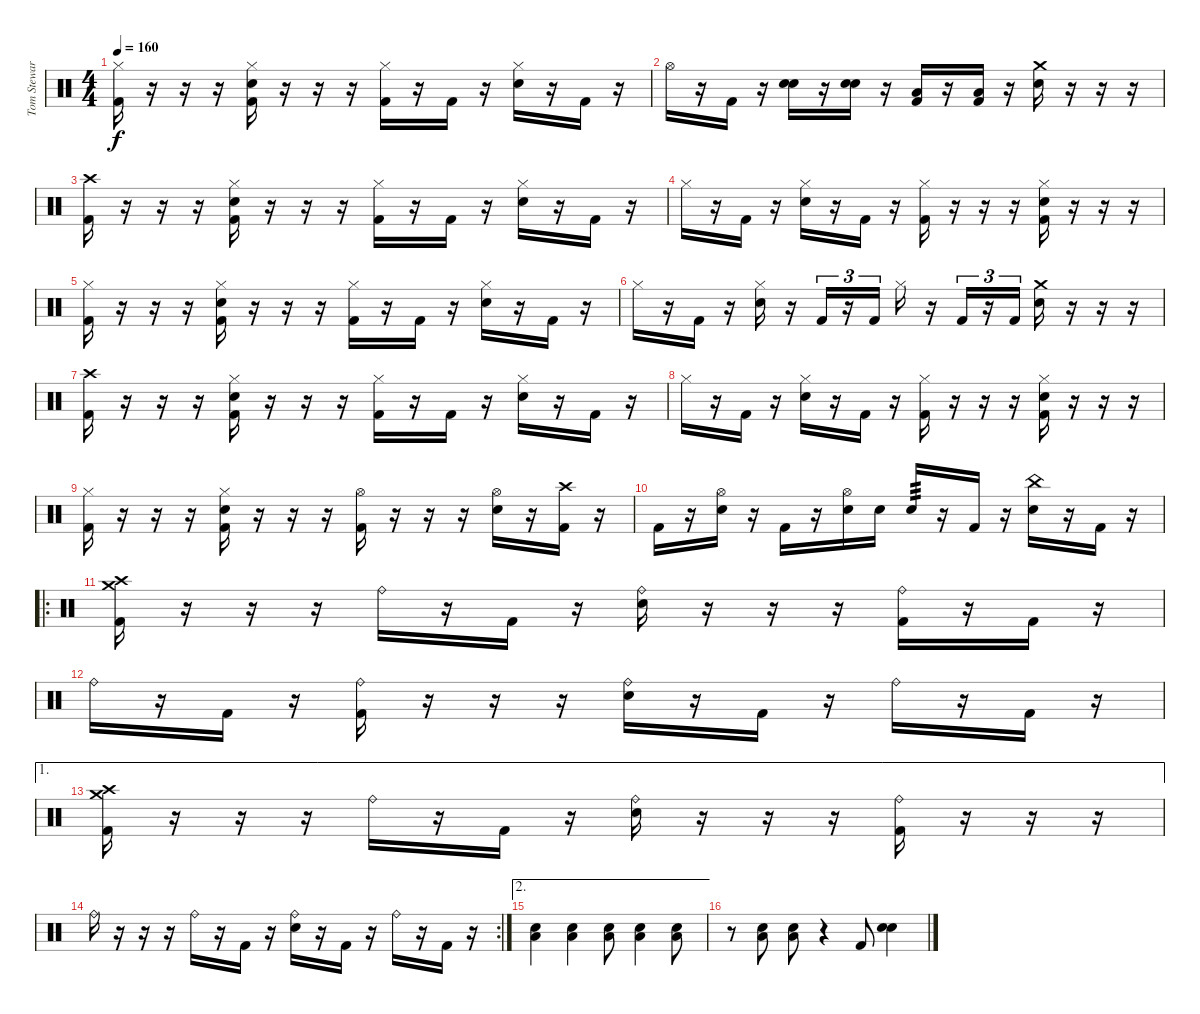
\track ("Tom Steward" "Tom Stewar") {instrument percussion}
\staff {score}
\articulation defaults
\ts (4 4)
\tempo 160
\clef neutral
\ks c
("Hi-Hat (closed)" "Kick (hit) 2").16{dy f} r.16 r.16 r.16 ("Hi-Hat (closed)" "Snare (hit) 2" "Kick (hit) 2").16 r.16 r.16 r.16 ("Hi-Hat (closed)" "Kick (hit) 2").16 r.16 "Kick (hit) 2".16 r.16 ("Hi-Hat (closed)" "Snare (hit) 2").16 r.16 "Kick (hit) 2".16 r.16 |
"Hi-Hat (open)".16 r.16 "Kick (hit) 2".16 r.16 ("Snare (hit) 2" "Snare (hit) 2").16 r.16 ("Snare (hit) 2" "Snare (hit) 2").16 r.16 ("Low Tom (hit)" "Kick (hit) 2").16 r.16 ("Low Floor Tom (hit)" "Kick (hit) 2").16 r.16 ("Crash medium (hit)" "Snare (hit) 2").16 r.16 r.16 r.16 |
("Crash high (hit)" "Kick (hit) 2").16 r.16 r.16 r.16 ("Hi-Hat (closed)" "Snare (hit) 2" "Kick (hit) 2").16 r.16 r.16 r.16 ("Hi-Hat (closed)" "Kick (hit) 2").16 r.16 "Kick (hit) 2".16 r.16 ("Hi-Hat (closed)" "Snare (hit) 2").16 r.16 "Kick (hit) 2".16 r.16 |
"Hi-Hat (closed)".16 r.16 "Kick (hit) 2".16 r.16 ("Hi-Hat (closed)" "Snare (hit) 2").16 r.16 "Kick (hit) 2".16 r.16 ("Hi-Hat (closed)" "Kick (hit) 2").16 r.16 r.16 r.16 ("Hi-Hat (closed)" "Snare (hit) 2" "Kick (hit) 2").16 r.16 r.16 r.16 |
("Hi-Hat (closed)" "Kick (hit) 2").16 r.16 r.16 r.16 ("Hi-Hat (closed)" "Snare (hit) 2" "Kick (hit) 2").16 r.16 r.16 r.16 ("Hi-Hat (closed)" "Kick (hit) 2").16 r.16 "Kick (hit) 2".16 r.16 ("Hi-Hat (closed)" "Snare (hit) 2").16 r.16 "Kick (hit) 2".16 r.16 |
"Hi-Hat (closed)".16 r.16 "Kick (hit) 2".16 r.16 ("Hi-Hat (closed)" "Snare (hit) 2").16 r.16 "Kick (hit) 2".16{tu (3 2)} r.16{tu (3 2)} "Kick (hit) 2".16{tu (3 2)} "Hi-Hat (closed)".16 r.16 "Kick (hit) 2".16{tu (3 2)} r.16{tu (3 2)} "Kick (hit) 2".16{tu (3 2)} ("Crash medium (hit)" "Snare (hit) 2").16 r.16 r.16 r.16 |
("Crash high (hit)" "Kick (hit) 2").16 r.16 r.16 r.16 ("Hi-Hat (closed)" "Snare (hit) 2" "Kick (hit) 2").16 r.16 r.16 r.16 ("Hi-Hat (closed)" "Kick (hit) 2").16 r.16 "Kick (hit) 2".16 r.16 ("Hi-Hat (closed)" "Snare (hit) 2").16 r.16 "Kick (hit) 2".16 r.16 |
"Hi-Hat (closed)".16 r.16 "Kick (hit) 2".16 r.16 ("Hi-Hat (closed)" "Snare (hit) 2").16 r.16 "Kick (hit) 2".16 r.16 ("Hi-Hat (closed)" "Kick (hit) 2").16 r.16 r.16 r.16 ("Hi-Hat (closed)" "Snare (hit) 2" "Kick (hit) 2").16 r.16 r.16 r.16 |
("Hi-Hat (closed)" "Kick (hit) 2").16 r.16 r.16 r.16 ("Hi-Hat (closed)" "Snare (hit) 2" "Kick (hit) 2").16 r.16 r.16 r.16 ("Hi-Hat (open)" "Kick (hit) 2").16 r.16 r.16 r.16 ("Hi-Hat (open)" "Snare (hit) 2").16 r.16 ("Crash high (hit)" "Kick (hit) 2").16 r.16 |
"Kick (hit) 2".16 r.16 ("Hi-Hat (open)" "Snare (hit) 2").16 r.16 "Kick (hit) 2".16 r.16 ("Hi-Hat (open)" "Snare (hit) 2").16 "Snare (hit) 2".16 "Snare (hit) 2".16{tp 3} r.16 "Kick (hit) 2".16 r.16 ("China (hit)" "Snare (hit) 2").16 r.16 "Kick (hit) 2".16 r.16 |
\ro
("Crash high (hit)" "Crash medium (hit)" "Kick (hit) 2").16 r.16 r.16 r.16 "Ride (bell)".16 r.16 "Kick (hit) 2".16 r.16 ("Ride (bell)" "Snare (hit) 2").16 r.16 r.16 r.16 ("Ride (bell)" "Kick (hit) 2").16 r.16 "Kick (hit) 2".16 r.16 |
"Ride (bell)".16 r.16 "Kick (hit) 2".16 r.16 ("Ride (bell)" "Kick (hit) 2").16 r.16 r.16 r.16 ("Ride (bell)" "Snare (hit) 2").16 r.16 "Kick (hit) 2".16 r.16 "Ride (bell)".16 r.16 "Kick (hit) 2".16 r.16 |
\ae 1
("Crash high (hit)" "Crash medium (hit)" "Kick (hit) 2").16 r.16 r.16 r.16 "Ride (bell)".16 r.16 "Kick (hit) 2".16 r.16 ("Ride (bell)" "Snare (hit) 2").16 r.16 r.16 r.16 ("Ride (bell)" "Kick (hit) 2").16 r.16 r.16 r.16 |
\rc 2 "Ride (bell)".16
r.16 r.16 r.16 "Ride (bell)".16 r.16 "Kick (hit) 2".16 r.16 ("Ride (bell)" "Snare (hit) 2").16 r.16 "Kick (hit) 2".16 r.16 "Ride (bell)".16 r.16 "Kick (hit) 2".16 r.16 |
\ae 2
("Snare (hit) 2" "Low Tom (hit)").4 ("Snare (hit) 2" "Low Tom (hit)").4 ("Snare (hit) 2" "Low Tom (hit)").8 ("Snare (hit) 2" "Low Tom (hit)").4 ("Snare (hit) 2" "Low Tom (hit)").8 |
r.8 ("Snare (hit) 2" "Low Tom (hit)").8 ("Snare (hit) 2" "Low Tom (hit)").8 r.4 "Kick (hit) 2".8 ("Snare (hit) 2" "Snare (hit) 2").4
